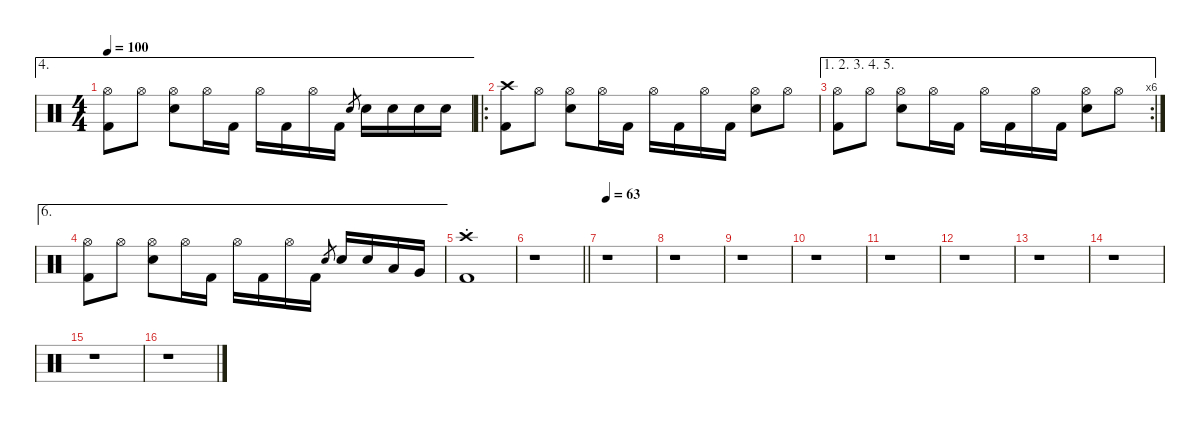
\defaultSystemsLayout 4
\hideDynamics
\bracketExtendMode nobrackets
\singleTrackTrackNamePolicy hidden
\multiTrackTrackNamePolicy hidden
\firstSystemTrackNameMode fullname
\firstSystemTrackNameOrientation horizontal
\otherSystemsTrackNameOrientation horizontal
\track ("Drums" "drm.") {instrument percussion}
\staff {score}
\articulation defaults
\ae 4
\ts (4 4)
\tempo 100
\clef neutral
\ks c
("Hi-Hat (open)" "Kick (hit) 2").8{dy f beam Down} "Hi-Hat (open)".8{beam Down} ("Hi-Hat (open)" "Snare (hit) 2").8{beam Down} "Hi-Hat (open)".16{beam Down} "Kick (hit) 2".16{beam Down} "Hi-Hat (open)".16{beam Down} "Kick (hit) 2".16{beam Down} "Hi-Hat (open)".16{beam Down} "Kick (hit) 2".16{beam Down} "Electric Snare (hit)".8{gr dy mf beam Up} "Snare (hit) 2".16{dy f beam Down} "Snare (hit) 2".16{beam Down} "Snare (hit) 2".16{beam Down} "Snare (hit) 2".16{beam Down} |
\ro
("Crash high (hit)" "Kick (hit) 2").8{beam Down} "Hi-Hat (open)".8{beam Down} ("Hi-Hat (open)" "Snare (hit) 2").8{beam Down} "Hi-Hat (open)".16{beam Down} "Kick (hit) 2".16{beam Down} "Hi-Hat (open)".16{beam Down} "Kick (hit) 2".16{beam Down} "Hi-Hat (open)".16{beam Down} "Kick (hit) 2".16{beam Down} ("Hi-Hat (open)" "Snare (hit) 2").8{beam Down} "Hi-Hat (open)".8{beam Down} |
\ae (1 2 3 4 5)
\rc 6
("Hi-Hat (open)" "Kick (hit) 2").8{beam Down beam merge} "Hi-Hat (open)".8{beam Down beam split} ("Hi-Hat (open)" "Snare (hit) 2").8{beam Down beam merge} "Hi-Hat (open)".16{beam Down beam merge} "Kick (hit) 2".16{beam Down beam split} "Hi-Hat (open)".16{beam Down beam merge} "Kick (hit) 2".16{beam Down beam merge} "Hi-Hat (open)".16{beam Down beam merge} "Kick (hit) 2".16{beam Down beam split} ("Hi-Hat (open)" "Snare (hit) 2").8{beam Down beam merge} "Hi-Hat (open)".8{beam Down} |
\ae 6
("Hi-Hat (open)" "Kick (hit) 2").8{beam Down} "Hi-Hat (open)".8{beam Down beam split} ("Hi-Hat (open)" "Snare (hit) 2").8{beam Down beam merge} "Hi-Hat (open)".16{beam Down beam merge} "Kick (hit) 2".16{beam Down beam split} "Hi-Hat (open)".16{beam Down} "Kick (hit) 2".16{beam Down} "Hi-Hat (open)".16{beam Down} "Kick (hit) 2".16{beam Down} "Electric Snare (hit)".8{gr dy mf beam Up} "Snare (hit) 2".16{dy ff beam Up beam merge} "Snare (hit) 2".16{beam Up beam merge} "Low Tom (hit)".16{dy fff beam Up beam merge} "Very Low Tom (hit)".16{dy ff beam Up} |
("Crash high (hit)"{st} "Kick (hit) 2"{st}).1{beam Down} |
\barLineRight lightlight
r.1{beam Down} |
\tempo 63
\ks aminor
r.1{beam Down} |
r.1{beam Down} |
r.1{beam Down} |
r.1{beam Down} |
r.1{beam Down} |
r.1{beam Down} |
r.1{beam Down} |
r.1{beam Down} |
r.1{beam Down} |
r.1{beam Down}
